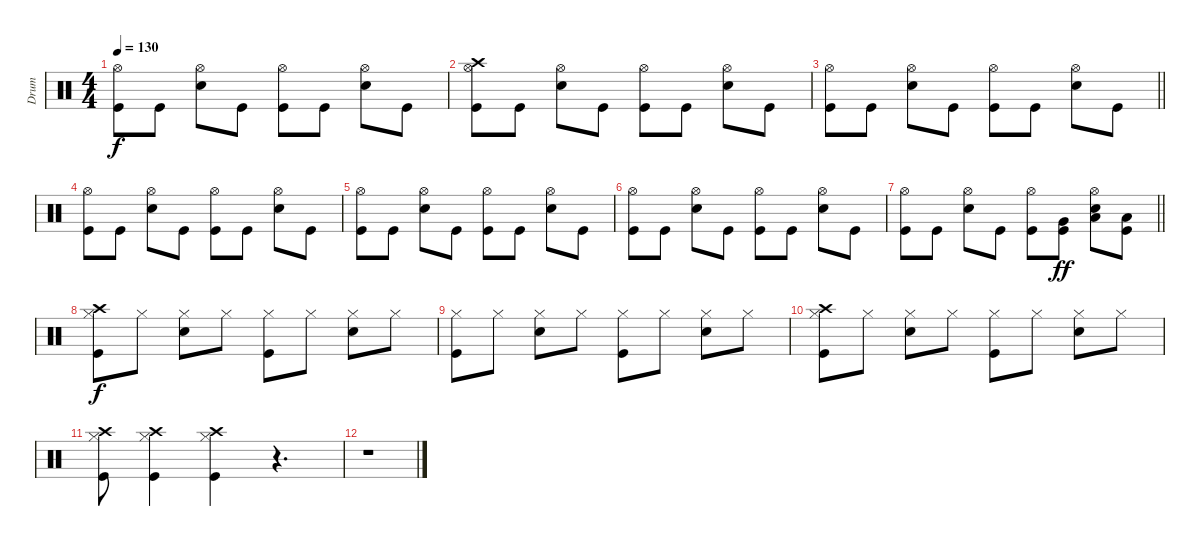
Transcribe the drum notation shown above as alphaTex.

\track ("Drum" "Drum") {instrument percussion}
\staff {score}
\articulation defaults
\ts (4 4)
\tempo 130
\clef neutral
\ks c
("Kick (hit)" "Hi-Hat (open)").8{dy f} "Kick (hit)".8 ("Snare (hit) 2" "Hi-Hat (open)").8 "Kick (hit)".8 ("Kick (hit)" "Hi-Hat (open)").8 "Kick (hit)".8 ("Snare (hit) 2" "Hi-Hat (open)").8 "Kick (hit)".8 |
("Kick (hit)" "Hi-Hat (open)" "Crash high (hit)").8 "Kick (hit)".8 ("Snare (hit) 2" "Hi-Hat (open)").8 "Kick (hit)".8 ("Kick (hit)" "Hi-Hat (open)").8 "Kick (hit)".8 ("Snare (hit) 2" "Hi-Hat (open)").8 "Kick (hit)".8 |
\barLineRight lightlight
("Kick (hit)" "Hi-Hat (open)").8 "Kick (hit)".8 ("Snare (hit) 2" "Hi-Hat (open)").8 "Kick (hit)".8 ("Kick (hit)" "Hi-Hat (open)").8 "Kick (hit)".8 ("Snare (hit) 2" "Hi-Hat (open)").8 "Kick (hit)".8 |
\section ("" "")
("Kick (hit)" "Hi-Hat (open)").8 "Kick (hit)".8 ("Snare (hit) 2" "Hi-Hat (open)").8 "Kick (hit)".8 ("Kick (hit)" "Hi-Hat (open)").8 "Kick (hit)".8 ("Snare (hit) 2" "Hi-Hat (open)").8 "Kick (hit)".8 |
("Kick (hit)" "Hi-Hat (open)").8 "Kick (hit)".8 ("Snare (hit) 2" "Hi-Hat (open)").8 "Kick (hit)".8 ("Kick (hit)" "Hi-Hat (open)").8 "Kick (hit)".8 ("Snare (hit) 2" "Hi-Hat (open)").8 "Kick (hit)".8 |
("Kick (hit)" "Hi-Hat (open)").8 "Kick (hit)".8 ("Snare (hit) 2" "Hi-Hat (open)").8 "Kick (hit)".8 ("Kick (hit)" "Hi-Hat (open)").8 "Kick (hit)".8 ("Snare (hit) 2" "Hi-Hat (open)").8 "Kick (hit)".8 |
\barLineRight lightlight
("Kick (hit)" "Hi-Hat (open)").8 "Kick (hit)".8 ("Snare (hit) 2" "Hi-Hat (open)").8 "Kick (hit)".8 ("Kick (hit)" "Hi-Hat (open)").8 ("Kick (hit)" "Very Low Tom (hit)").8{dy ff} ("Snare (hit) 2" "Hi-Hat (open)" "Low Tom (hit)").8 ("Kick (hit)" "Low Tom (hit)").8 |
("Kick (hit)" "Hi-Hat (closed)" "Crash high (hit)").8{dy f} "Hi-Hat (closed)".8 ("Snare (hit) 2" "Hi-Hat (closed)").8 "Hi-Hat (closed)".8 ("Kick (hit)" "Hi-Hat (closed)").8 "Hi-Hat (closed)".8 ("Snare (hit) 2" "Hi-Hat (closed)").8 "Hi-Hat (closed)".8 |
("Kick (hit)" "Hi-Hat (closed)").8 "Hi-Hat (closed)".8 ("Snare (hit) 2" "Hi-Hat (closed)").8 "Hi-Hat (closed)".8 ("Kick (hit)" "Hi-Hat (closed)").8 "Hi-Hat (closed)".8 ("Snare (hit) 2" "Hi-Hat (closed)").8 "Hi-Hat (closed)".8 |
("Kick (hit)" "Hi-Hat (closed)" "Crash high (hit)").8 "Hi-Hat (closed)".8 ("Snare (hit) 2" "Hi-Hat (closed)").8 "Hi-Hat (closed)".8 ("Kick (hit)" "Hi-Hat (closed)").8 "Hi-Hat (closed)".8 ("Snare (hit) 2" "Hi-Hat (closed)").8 "Hi-Hat (closed)".8 |
("Kick (hit)" "Hi-Hat (closed)" "Crash high (hit)").8 ("Kick (hit)" "Hi-Hat (closed)" "Crash high (hit)").4 ("Kick (hit)" "Hi-Hat (closed)" "Crash high (hit)").4 r.4{d} |
r.1
